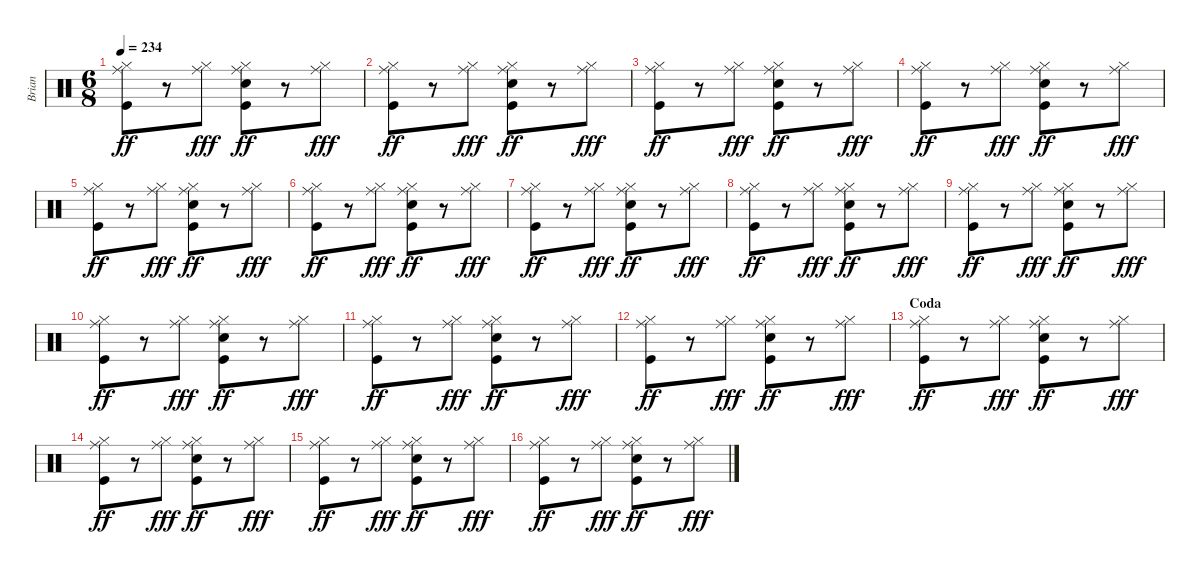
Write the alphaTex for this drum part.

\track ("Brian" "Brian") {instrument percussion}
\staff {score}
\articulation defaults
\ts (6 8)
\tempo 234
\clef neutral
\ks c
("Ride (middle)" "Hi-Hat (closed)" "Kick (hit)").8{dy ff} r.8 ("Ride (middle)" "Hi-Hat (closed)").8{dy fff} ("Ride (middle)" "Hi-Hat (closed)" "Electric Snare (hit)" "Kick (hit)").8{dy ff} r.8 ("Ride (middle)" "Hi-Hat (closed)").8{dy fff} |
("Ride (middle)" "Hi-Hat (closed)" "Kick (hit)").8{dy ff} r.8 ("Ride (middle)" "Hi-Hat (closed)").8{dy fff} ("Ride (middle)" "Hi-Hat (closed)" "Electric Snare (hit)" "Kick (hit)").8{dy ff} r.8 ("Ride (middle)" "Hi-Hat (closed)").8{dy fff} |
("Ride (middle)" "Hi-Hat (closed)" "Kick (hit)").8{dy ff} r.8 ("Ride (middle)" "Hi-Hat (closed)").8{dy fff} ("Ride (middle)" "Hi-Hat (closed)" "Electric Snare (hit)" "Kick (hit)").8{dy ff} r.8 ("Ride (middle)" "Hi-Hat (closed)").8{dy fff} |
("Ride (middle)" "Hi-Hat (closed)" "Kick (hit)").8{dy ff} r.8 ("Ride (middle)" "Hi-Hat (closed)").8{dy fff} ("Ride (middle)" "Hi-Hat (closed)" "Electric Snare (hit)" "Kick (hit)").8{dy ff} r.8 ("Ride (middle)" "Hi-Hat (closed)").8{dy fff} |
("Ride (middle)" "Hi-Hat (closed)" "Kick (hit)").8{dy ff} r.8 ("Ride (middle)" "Hi-Hat (closed)").8{dy fff} ("Ride (middle)" "Hi-Hat (closed)" "Electric Snare (hit)" "Kick (hit)").8{dy ff} r.8 ("Ride (middle)" "Hi-Hat (closed)").8{dy fff} |
("Ride (middle)" "Hi-Hat (closed)" "Kick (hit)").8{dy ff} r.8 ("Ride (middle)" "Hi-Hat (closed)").8{dy fff} ("Ride (middle)" "Hi-Hat (closed)" "Electric Snare (hit)" "Kick (hit)").8{dy ff} r.8 ("Ride (middle)" "Hi-Hat (closed)").8{dy fff} |
("Ride (middle)" "Hi-Hat (closed)" "Kick (hit)").8{dy ff} r.8 ("Ride (middle)" "Hi-Hat (closed)").8{dy fff} ("Ride (middle)" "Hi-Hat (closed)" "Electric Snare (hit)" "Kick (hit)").8{dy ff} r.8 ("Ride (middle)" "Hi-Hat (closed)").8{dy fff} |
("Ride (middle)" "Hi-Hat (closed)" "Kick (hit)").8{dy ff} r.8 ("Ride (middle)" "Hi-Hat (closed)").8{dy fff} ("Ride (middle)" "Hi-Hat (closed)" "Electric Snare (hit)" "Kick (hit)").8{dy ff} r.8 ("Ride (middle)" "Hi-Hat (closed)").8{dy fff} |
("Ride (middle)" "Hi-Hat (closed)" "Kick (hit)").8{dy ff} r.8 ("Ride (middle)" "Hi-Hat (closed)").8{dy fff} ("Ride (middle)" "Hi-Hat (closed)" "Electric Snare (hit)" "Kick (hit)").8{dy ff} r.8 ("Ride (middle)" "Hi-Hat (closed)").8{dy fff} |
("Ride (middle)" "Hi-Hat (closed)" "Kick (hit)").8{dy ff} r.8 ("Ride (middle)" "Hi-Hat (closed)").8{dy fff} ("Ride (middle)" "Hi-Hat (closed)" "Electric Snare (hit)" "Kick (hit)").8{dy ff} r.8 ("Ride (middle)" "Hi-Hat (closed)").8{dy fff} |
("Ride (middle)" "Hi-Hat (closed)" "Kick (hit)").8{dy ff} r.8 ("Ride (middle)" "Hi-Hat (closed)").8{dy fff} ("Ride (middle)" "Hi-Hat (closed)" "Electric Snare (hit)" "Kick (hit)").8{dy ff} r.8 ("Ride (middle)" "Hi-Hat (closed)").8{dy fff} |
("Ride (middle)" "Hi-Hat (closed)" "Kick (hit)").8{dy ff} r.8 ("Ride (middle)" "Hi-Hat (closed)").8{dy fff} ("Ride (middle)" "Hi-Hat (closed)" "Electric Snare (hit)" "Kick (hit)").8{dy ff} r.8 ("Ride (middle)" "Hi-Hat (closed)").8{dy fff} |
\section ("" "Coda")
("Ride (middle)" "Hi-Hat (closed)" "Kick (hit)").8{dy ff} r.8 ("Ride (middle)" "Hi-Hat (closed)").8{dy fff} ("Ride (middle)" "Hi-Hat (closed)" "Electric Snare (hit)" "Kick (hit)").8{dy ff} r.8 ("Ride (middle)" "Hi-Hat (closed)").8{dy fff} |
("Ride (middle)" "Hi-Hat (closed)" "Kick (hit)").8{dy ff} r.8 ("Ride (middle)" "Hi-Hat (closed)").8{dy fff} ("Ride (middle)" "Hi-Hat (closed)" "Electric Snare (hit)" "Kick (hit)").8{dy ff} r.8 ("Ride (middle)" "Hi-Hat (closed)").8{dy fff} |
("Ride (middle)" "Hi-Hat (closed)" "Kick (hit)").8{dy ff} r.8 ("Ride (middle)" "Hi-Hat (closed)").8{dy fff} ("Ride (middle)" "Hi-Hat (closed)" "Electric Snare (hit)" "Kick (hit)").8{dy ff} r.8 ("Ride (middle)" "Hi-Hat (closed)").8{dy fff} |
("Ride (middle)" "Hi-Hat (closed)" "Kick (hit)").8{dy ff} r.8 ("Ride (middle)" "Hi-Hat (closed)").8{dy fff} ("Ride (middle)" "Hi-Hat (closed)" "Electric Snare (hit)" "Kick (hit)").8{dy ff} r.8 ("Ride (middle)" "Hi-Hat (closed)").8{dy fff}
